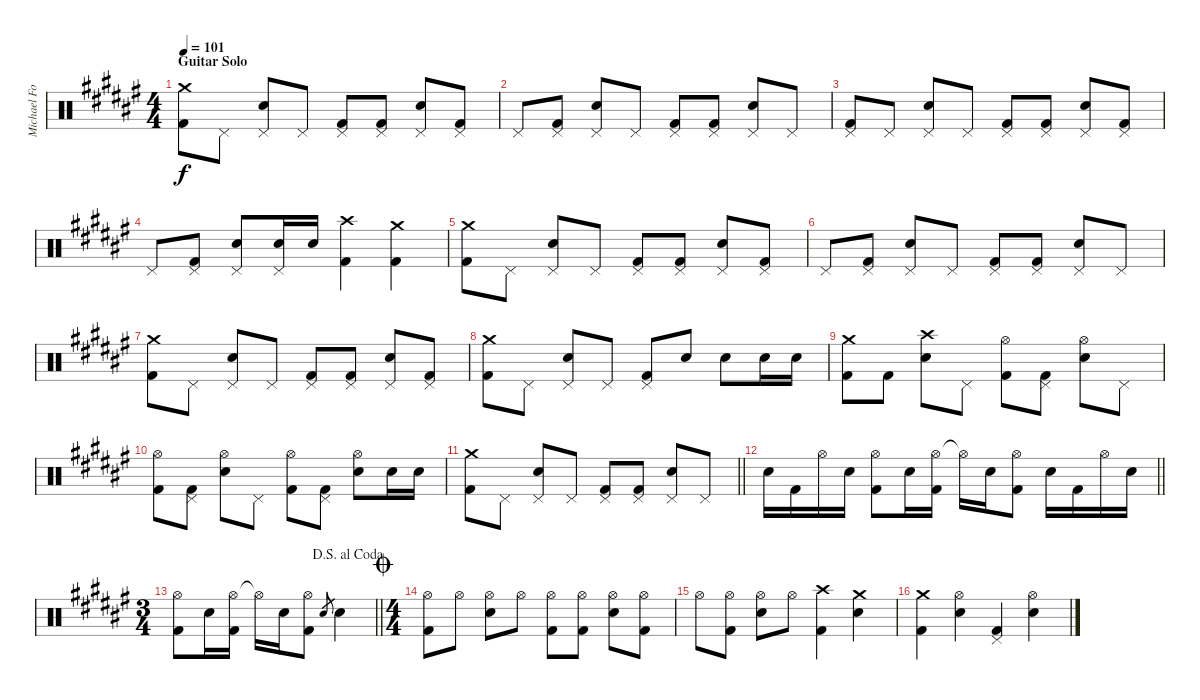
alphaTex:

\track ("Michael Foster" "Michael Fo") {instrument percussion}
\staff {score}
\articulation defaults
\ts (4 4)
\section ("" "Guitar Solo")
\tempo 101
\clef neutral
\ks f#
("Crash medium (hit)" "Kick (hit) 2").8{dy f} "Pedal Hi-Hat (hit)".8 ("Pedal Hi-Hat (hit)" "Snare (hit) 2").8 "Pedal Hi-Hat (hit)".8 ("Pedal Hi-Hat (hit)" "Kick (hit) 2").8 ("Pedal Hi-Hat (hit)" "Kick (hit) 2").8 ("Pedal Hi-Hat (hit)" "Snare (hit) 2").8 ("Pedal Hi-Hat (hit)" "Kick (hit) 2").8 |
"Pedal Hi-Hat (hit)".8 ("Pedal Hi-Hat (hit)" "Kick (hit) 2").8 ("Pedal Hi-Hat (hit)" "Snare (hit) 2").8 "Pedal Hi-Hat (hit)".8 ("Pedal Hi-Hat (hit)" "Kick (hit) 2").8 ("Pedal Hi-Hat (hit)" "Kick (hit) 2").8 ("Pedal Hi-Hat (hit)" "Snare (hit) 2").8 "Pedal Hi-Hat (hit)".8 |
("Pedal Hi-Hat (hit)" "Kick (hit) 2").8 "Pedal Hi-Hat (hit)".8 ("Pedal Hi-Hat (hit)" "Snare (hit) 2").8 "Pedal Hi-Hat (hit)".8 ("Pedal Hi-Hat (hit)" "Kick (hit) 2").8 ("Pedal Hi-Hat (hit)" "Kick (hit) 2").8 ("Pedal Hi-Hat (hit)" "Snare (hit) 2").8 ("Pedal Hi-Hat (hit)" "Kick (hit) 2").8 |
"Pedal Hi-Hat (hit)".8 ("Pedal Hi-Hat (hit)" "Kick (hit) 2").8 ("Pedal Hi-Hat (hit)" "Snare (hit) 2").8 ("Pedal Hi-Hat (hit)" "Snare (hit) 2").16 "Snare (hit) 2".16 ("Crash high (hit)" "Kick (hit) 2").4 ("Crash medium (hit)" "Kick (hit) 2").4 |
("Crash medium (hit)" "Kick (hit) 2").8 "Pedal Hi-Hat (hit)".8 ("Pedal Hi-Hat (hit)" "Snare (hit) 2").8 "Pedal Hi-Hat (hit)".8 ("Pedal Hi-Hat (hit)" "Kick (hit) 2").8 ("Pedal Hi-Hat (hit)" "Kick (hit) 2").8 ("Pedal Hi-Hat (hit)" "Snare (hit) 2").8 ("Pedal Hi-Hat (hit)" "Kick (hit) 2").8 |
"Pedal Hi-Hat (hit)".8 ("Pedal Hi-Hat (hit)" "Kick (hit) 2").8 ("Pedal Hi-Hat (hit)" "Snare (hit) 2").8 "Pedal Hi-Hat (hit)".8 ("Pedal Hi-Hat (hit)" "Kick (hit) 2").8 ("Pedal Hi-Hat (hit)" "Kick (hit) 2").8 ("Pedal Hi-Hat (hit)" "Snare (hit) 2").8 "Pedal Hi-Hat (hit)".8 |
("Crash medium (hit)" "Kick (hit) 2").8 "Pedal Hi-Hat (hit)".8 ("Pedal Hi-Hat (hit)" "Snare (hit) 2").8 "Pedal Hi-Hat (hit)".8 ("Pedal Hi-Hat (hit)" "Kick (hit) 2").8 ("Pedal Hi-Hat (hit)" "Kick (hit) 2").8 ("Pedal Hi-Hat (hit)" "Snare (hit) 2").8 ("Pedal Hi-Hat (hit)" "Kick (hit) 2").8 |
("Crash medium (hit)" "Kick (hit) 2").8 "Pedal Hi-Hat (hit)".8 ("Pedal Hi-Hat (hit)" "Snare (hit) 2").8 "Pedal Hi-Hat (hit)".8 ("Pedal Hi-Hat (hit)" "Kick (hit) 2").8 "Snare (hit) 2".8 "Snare (hit) 2".8 "Snare (hit) 2".16 "Snare (hit) 2".16 |
("Crash medium (hit)" "Kick (hit) 2").8 "Kick (hit) 2".8 ("Crash high (hit)" "Snare (hit) 2").8 "Pedal Hi-Hat (hit)".8 ("Hi-Hat (open)" "Kick (hit) 2").8 ("Pedal Hi-Hat (hit)" "Kick (hit) 2").8 ("Hi-Hat (open)" "Snare (hit) 2").8 "Pedal Hi-Hat (hit)".8 |
("Hi-Hat (open)" "Kick (hit) 2").8 ("Pedal Hi-Hat (hit)" "Kick (hit) 2").8 ("Hi-Hat (open)" "Snare (hit) 2").8 "Pedal Hi-Hat (hit)".8 ("Hi-Hat (open)" "Kick (hit) 2").8 ("Pedal Hi-Hat (hit)" "Kick (hit) 2").8 ("Hi-Hat (open)" "Snare (hit) 2").8 "Snare (hit) 2".16 "Snare (hit) 2".16 |
\barLineRight lightlight
("Crash medium (hit)" "Kick (hit) 2").8 "Pedal Hi-Hat (hit)".8 ("Pedal Hi-Hat (hit)" "Snare (hit) 2").8 "Pedal Hi-Hat (hit)".8 ("Pedal Hi-Hat (hit)" "Kick (hit) 2").8 ("Pedal Hi-Hat (hit)" "Kick (hit) 2").8 ("Pedal Hi-Hat (hit)" "Snare (hit) 2").8 "Pedal Hi-Hat (hit)".8 |
\barLineRight lightlight "Snare (hit) 2".16 "Kick (hit) 2".16 "Hi-Hat (open)".16 "Snare (hit) 2".16
("Hi-Hat (open)" "Kick (hit) 2").8 "Snare (hit) 2".16 ("Hi-Hat (open)" "Kick (hit) 2").16 "Hi-Hat (open)"{t}.16 "Snare (hit) 2".16 ("Hi-Hat (open)" "Kick (hit) 2").8 "Snare (hit) 2".16 "Kick (hit) 2".16 "Hi-Hat (open)".16 "Snare (hit) 2".16 |
\ts (3 4)
\jump dalsegnoalcoda
\barLineRight lightlight
("Hi-Hat (open)" "Kick (hit) 2").8 "Snare (hit) 2".16 ("Hi-Hat (open)" "Kick (hit) 2").16 "Hi-Hat (open)"{t}.16 "Snare (hit) 2".16 ("Hi-Hat (open)" "Kick (hit) 2").8 "Snare (hit) 2".8{gr} "Snare (hit) 2".4 |
\ts (4 4)
\jump coda
("Hi-Hat (open)" "Kick (hit) 2").8 "Hi-Hat (open)".8 ("Hi-Hat (open)" "Snare (hit) 2").8 "Hi-Hat (open)".8 ("Hi-Hat (open)" "Kick (hit) 2").8 ("Hi-Hat (open)" "Kick (hit) 2").8 ("Hi-Hat (open)" "Snare (hit) 2").8 ("Hi-Hat (open)" "Kick (hit) 2").8 |
"Hi-Hat (open)".8 ("Hi-Hat (open)" "Kick (hit) 2").8 ("Hi-Hat (open)" "Snare (hit) 2").8 "Hi-Hat (open)".8 ("Crash high (hit)" "Kick (hit) 2").4 ("Crash medium (hit)" "Snare (hit) 2").4 |
("Crash medium (hit)" "Kick (hit) 2").4 ("Hi-Hat (open)" "Snare (hit) 2").4 ("Pedal Hi-Hat (hit)" "Kick (hit) 2").4 ("Hi-Hat (open)" "Snare (hit) 2").4
